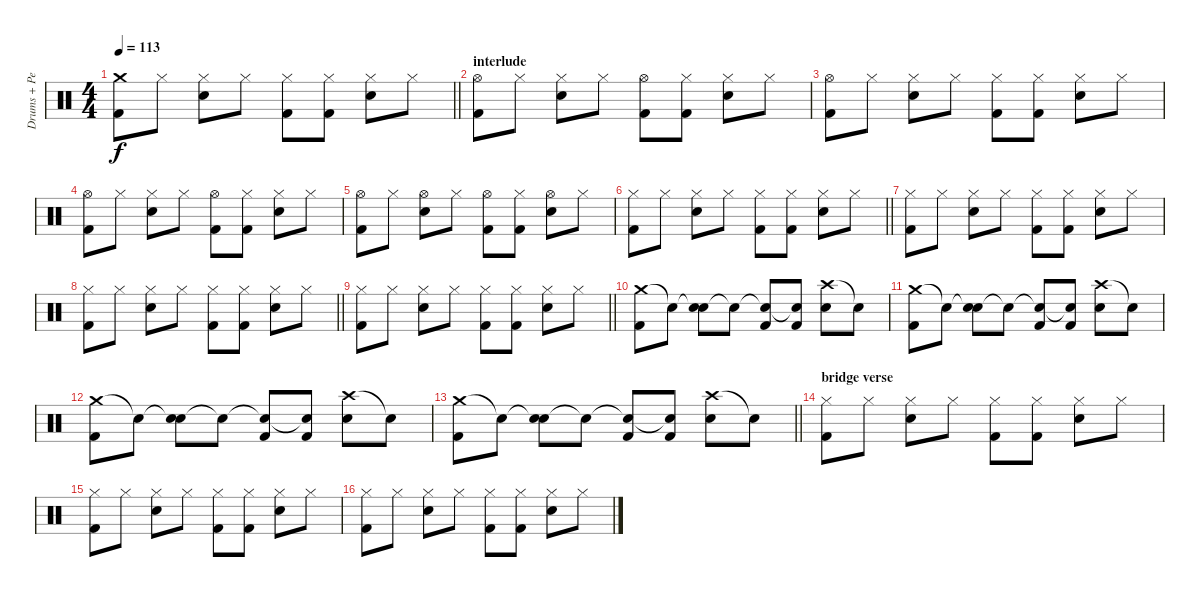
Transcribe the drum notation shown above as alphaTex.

\track ("Drums + Percussion" "Drums + Pe") {instrument percussion}
\staff {score}
\articulation defaults
\ts (4 4)
\tempo 113
\clef neutral
\barLineRight lightlight
\ks c
("Crash medium (hit)" "Kick (hit) 2").8{dy f} "Hi-Hat (closed)".8 ("Hi-Hat (closed)" "Snare (hit) 2").8 "Hi-Hat (closed)".8 ("Hi-Hat (closed)" "Kick (hit) 2").8 ("Hi-Hat (closed)" "Kick (hit) 2").8 ("Hi-Hat (closed)" "Snare (hit) 2").8 "Hi-Hat (closed)".8 |
\section ("" "interlude")
("Hi-Hat (open)" "Kick (hit) 2").8 "Hi-Hat (closed)".8 ("Hi-Hat (closed)" "Snare (hit) 2").8 "Hi-Hat (closed)".8 ("Hi-Hat (open)" "Kick (hit) 2").8 ("Hi-Hat (closed)" "Kick (hit) 2").8 ("Hi-Hat (closed)" "Snare (hit) 2").8 "Hi-Hat (closed)".8 |
("Hi-Hat (open)" "Kick (hit) 2").8 "Hi-Hat (closed)".8 ("Hi-Hat (closed)" "Snare (hit) 2").8 "Hi-Hat (closed)".8 ("Hi-Hat (closed)" "Kick (hit) 2").8 ("Hi-Hat (closed)" "Kick (hit) 2").8 ("Hi-Hat (closed)" "Snare (hit) 2").8 "Hi-Hat (closed)".8 |
("Hi-Hat (open)" "Kick (hit) 2").8 "Hi-Hat (closed)".8 ("Hi-Hat (closed)" "Snare (hit) 2").8 "Hi-Hat (closed)".8 ("Hi-Hat (open)" "Kick (hit) 2").8 ("Hi-Hat (closed)" "Kick (hit) 2").8 ("Hi-Hat (closed)" "Snare (hit) 2").8 "Hi-Hat (closed)".8 |
("Hi-Hat (open)" "Kick (hit) 2").8 "Hi-Hat (closed)".8 ("Hi-Hat (open)" "Snare (hit) 2").8 "Hi-Hat (closed)".8 ("Hi-Hat (open)" "Kick (hit) 2").8 ("Hi-Hat (closed)" "Kick (hit) 2").8 ("Hi-Hat (open)" "Snare (hit) 2").8 "Hi-Hat (closed)".8 |
\barLineRight lightlight
("Hi-Hat (closed)" "Kick (hit) 2").8 "Hi-Hat (closed)".8 ("Hi-Hat (closed)" "Snare (hit) 2").8 "Hi-Hat (closed)".8 ("Hi-Hat (closed)" "Kick (hit) 2").8 ("Hi-Hat (closed)" "Kick (hit) 2").8 ("Hi-Hat (closed)" "Snare (hit) 2").8 "Hi-Hat (closed)".8 |
("Hi-Hat (closed)" "Kick (hit) 2").8 "Hi-Hat (closed)".8 ("Hi-Hat (closed)" "Snare (hit) 2").8 "Hi-Hat (closed)".8 ("Hi-Hat (closed)" "Kick (hit) 2").8 ("Hi-Hat (closed)" "Kick (hit) 2").8 ("Hi-Hat (closed)" "Snare (hit) 2").8 "Hi-Hat (closed)".8 |
\barLineRight lightlight
("Hi-Hat (closed)" "Kick (hit) 2").8 "Hi-Hat (closed)".8 ("Hi-Hat (closed)" "Snare (hit) 2").8 "Hi-Hat (closed)".8 ("Hi-Hat (closed)" "Kick (hit) 2").8 ("Hi-Hat (closed)" "Kick (hit) 2").8 ("Hi-Hat (closed)" "Snare (hit) 2").8 "Hi-Hat (closed)".8 |
\barLineRight lightlight
("Hi-Hat (closed)" "Kick (hit) 2").8 "Hi-Hat (closed)".8 ("Hi-Hat (closed)" "Snare (hit) 2").8 "Hi-Hat (closed)".8 ("Hi-Hat (closed)" "Kick (hit) 2").8 ("Hi-Hat (closed)" "Kick (hit) 2").8 ("Hi-Hat (closed)" "Snare (hit) 2").8 "Hi-Hat (closed)".8 |
("Crash medium (hit)" "Kick (hit) 2").8 "Snare (hit)"{t}.8 ("Snare (hit)"{t} "Snare (hit) 2").8 "Snare (hit)"{t}.8 ("Snare (hit)"{t} "Kick (hit) 2").8 ("Snare (hit)"{t} "Kick (hit) 2").8 ("Crash high (hit)" "Snare (hit) 2").8 "Snare (hit)"{t}.8 |
("Crash medium (hit)" "Kick (hit) 2").8 "Snare (hit)"{t}.8 ("Snare (hit)"{t} "Snare (hit) 2").8 "Snare (hit)"{t}.8 ("Snare (hit)"{t} "Kick (hit) 2").8 ("Snare (hit)"{t} "Kick (hit) 2").8 ("Crash high (hit)" "Snare (hit) 2").8 "Snare (hit)"{t}.8 |
("Crash medium (hit)" "Kick (hit) 2").8 "Snare (hit)"{t}.8 ("Snare (hit)"{t} "Snare (hit) 2").8 "Snare (hit)"{t}.8 ("Snare (hit)"{t} "Kick (hit) 2").8 ("Snare (hit)"{t} "Kick (hit) 2").8 ("Crash high (hit)" "Snare (hit) 2").8 "Snare (hit)"{t}.8 |
\barLineRight lightlight
("Crash medium (hit)" "Kick (hit) 2").8 "Snare (hit)"{t}.8 ("Snare (hit)"{t} "Snare (hit) 2").8 "Snare (hit)"{t}.8 ("Snare (hit)"{t} "Kick (hit) 2").8 ("Snare (hit)"{t} "Kick (hit) 2").8 ("Crash high (hit)" "Snare (hit) 2").8 "Snare (hit)"{t}.8 |
\section ("" "bridge verse")
("Hi-Hat (closed)" "Kick (hit) 2").8 "Hi-Hat (closed)".8 ("Hi-Hat (closed)" "Snare (hit) 2").8 "Hi-Hat (closed)".8 ("Hi-Hat (closed)" "Kick (hit) 2").8 ("Hi-Hat (closed)" "Kick (hit) 2").8 ("Hi-Hat (closed)" "Snare (hit) 2").8 "Hi-Hat (closed)".8 |
("Hi-Hat (closed)" "Kick (hit) 2").8 "Hi-Hat (closed)".8 ("Hi-Hat (closed)" "Snare (hit) 2").8 "Hi-Hat (closed)".8 ("Hi-Hat (closed)" "Kick (hit) 2").8 ("Hi-Hat (closed)" "Kick (hit) 2").8 ("Hi-Hat (closed)" "Snare (hit) 2").8 "Hi-Hat (closed)".8 |
("Hi-Hat (closed)" "Kick (hit) 2").8 "Hi-Hat (closed)".8 ("Hi-Hat (closed)" "Snare (hit) 2").8 "Hi-Hat (closed)".8 ("Hi-Hat (closed)" "Kick (hit) 2").8 ("Hi-Hat (closed)" "Kick (hit) 2").8 ("Hi-Hat (closed)" "Snare (hit) 2").8 "Hi-Hat (closed)".8
